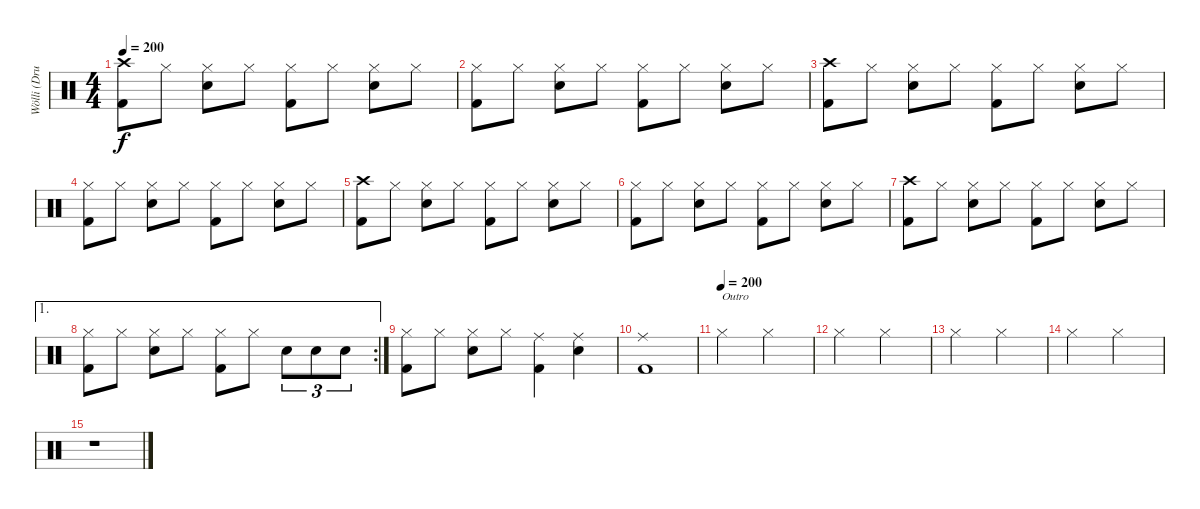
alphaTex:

\track ("Wölli (Drums)" "Wölli (Dru") {instrument percussion}
\staff {score}
\articulation defaults
\ts (4 4)
\tempo 200
\clef neutral
\ks c
("Crash high (hit)" "Kick (hit) 2").8{dy f} "Hi-Hat (closed)".8 ("Hi-Hat (closed)" "Snare (hit) 2").8 "Hi-Hat (closed)".8 ("Hi-Hat (closed)" "Kick (hit) 2").8 "Hi-Hat (closed)".8 ("Hi-Hat (closed)" "Snare (hit) 2").8 "Hi-Hat (closed)".8 |
("Hi-Hat (closed)" "Kick (hit) 2").8 "Hi-Hat (closed)".8 ("Hi-Hat (closed)" "Snare (hit) 2").8 "Hi-Hat (closed)".8 ("Hi-Hat (closed)" "Kick (hit) 2").8 "Hi-Hat (closed)".8 ("Hi-Hat (closed)" "Snare (hit) 2").8 "Hi-Hat (closed)".8 |
("Crash high (hit)" "Kick (hit) 2").8 "Hi-Hat (closed)".8 ("Hi-Hat (closed)" "Snare (hit) 2").8 "Hi-Hat (closed)".8 ("Hi-Hat (closed)" "Kick (hit) 2").8 "Hi-Hat (closed)".8 ("Hi-Hat (closed)" "Snare (hit) 2").8 "Hi-Hat (closed)".8 |
("Hi-Hat (closed)" "Kick (hit) 2").8 "Hi-Hat (closed)".8 ("Hi-Hat (closed)" "Snare (hit) 2").8 "Hi-Hat (closed)".8 ("Hi-Hat (closed)" "Kick (hit) 2").8 "Hi-Hat (closed)".8 ("Hi-Hat (closed)" "Snare (hit) 2").8 "Hi-Hat (closed)".8 |
("Crash high (hit)" "Kick (hit) 2").8 "Hi-Hat (closed)".8 ("Hi-Hat (closed)" "Snare (hit) 2").8 "Hi-Hat (closed)".8 ("Hi-Hat (closed)" "Kick (hit) 2").8 "Hi-Hat (closed)".8 ("Hi-Hat (closed)" "Snare (hit) 2").8 "Hi-Hat (closed)".8 |
("Hi-Hat (closed)" "Kick (hit) 2").8 "Hi-Hat (closed)".8 ("Hi-Hat (closed)" "Snare (hit) 2").8 "Hi-Hat (closed)".8 ("Hi-Hat (closed)" "Kick (hit) 2").8 "Hi-Hat (closed)".8 ("Hi-Hat (closed)" "Snare (hit) 2").8 "Hi-Hat (closed)".8 |
("Crash high (hit)" "Kick (hit) 2").8 "Hi-Hat (closed)".8 ("Hi-Hat (closed)" "Snare (hit) 2").8 "Hi-Hat (closed)".8 ("Hi-Hat (closed)" "Kick (hit) 2").8 "Hi-Hat (closed)".8 ("Hi-Hat (closed)" "Snare (hit) 2").8 "Hi-Hat (closed)".8 |
\ae 1
\rc 2
("Hi-Hat (closed)" "Kick (hit) 2").8 "Hi-Hat (closed)".8 ("Hi-Hat (closed)" "Snare (hit) 2").8 "Hi-Hat (closed)".8 ("Hi-Hat (closed)" "Kick (hit) 2").8 "Hi-Hat (closed)".8 "Snare (hit) 2".8{tu (3 2)} "Snare (hit) 2".8{tu (3 2)} "Snare (hit) 2".8{tu (3 2)} |
("Hi-Hat (closed)" "Kick (hit) 2").8 "Hi-Hat (closed)".8 ("Hi-Hat (closed)" "Snare (hit) 2").8 "Hi-Hat (closed)".8 ("Ride (middle)" "Kick (hit) 2").4 ("Ride (middle)" "Snare (hit) 2").4 |
("Ride (middle)" "Kick (hit) 2").1 |
\tempo (200)
"Hi-Hat (closed)".2{txt "Outro"} "Hi-Hat (closed)".2 |
"Hi-Hat (closed)".2 "Hi-Hat (closed)".2 |
"Hi-Hat (closed)".2 "Hi-Hat (closed)".2 |
"Hi-Hat (closed)".2 "Hi-Hat (closed)".2 |
r.1
